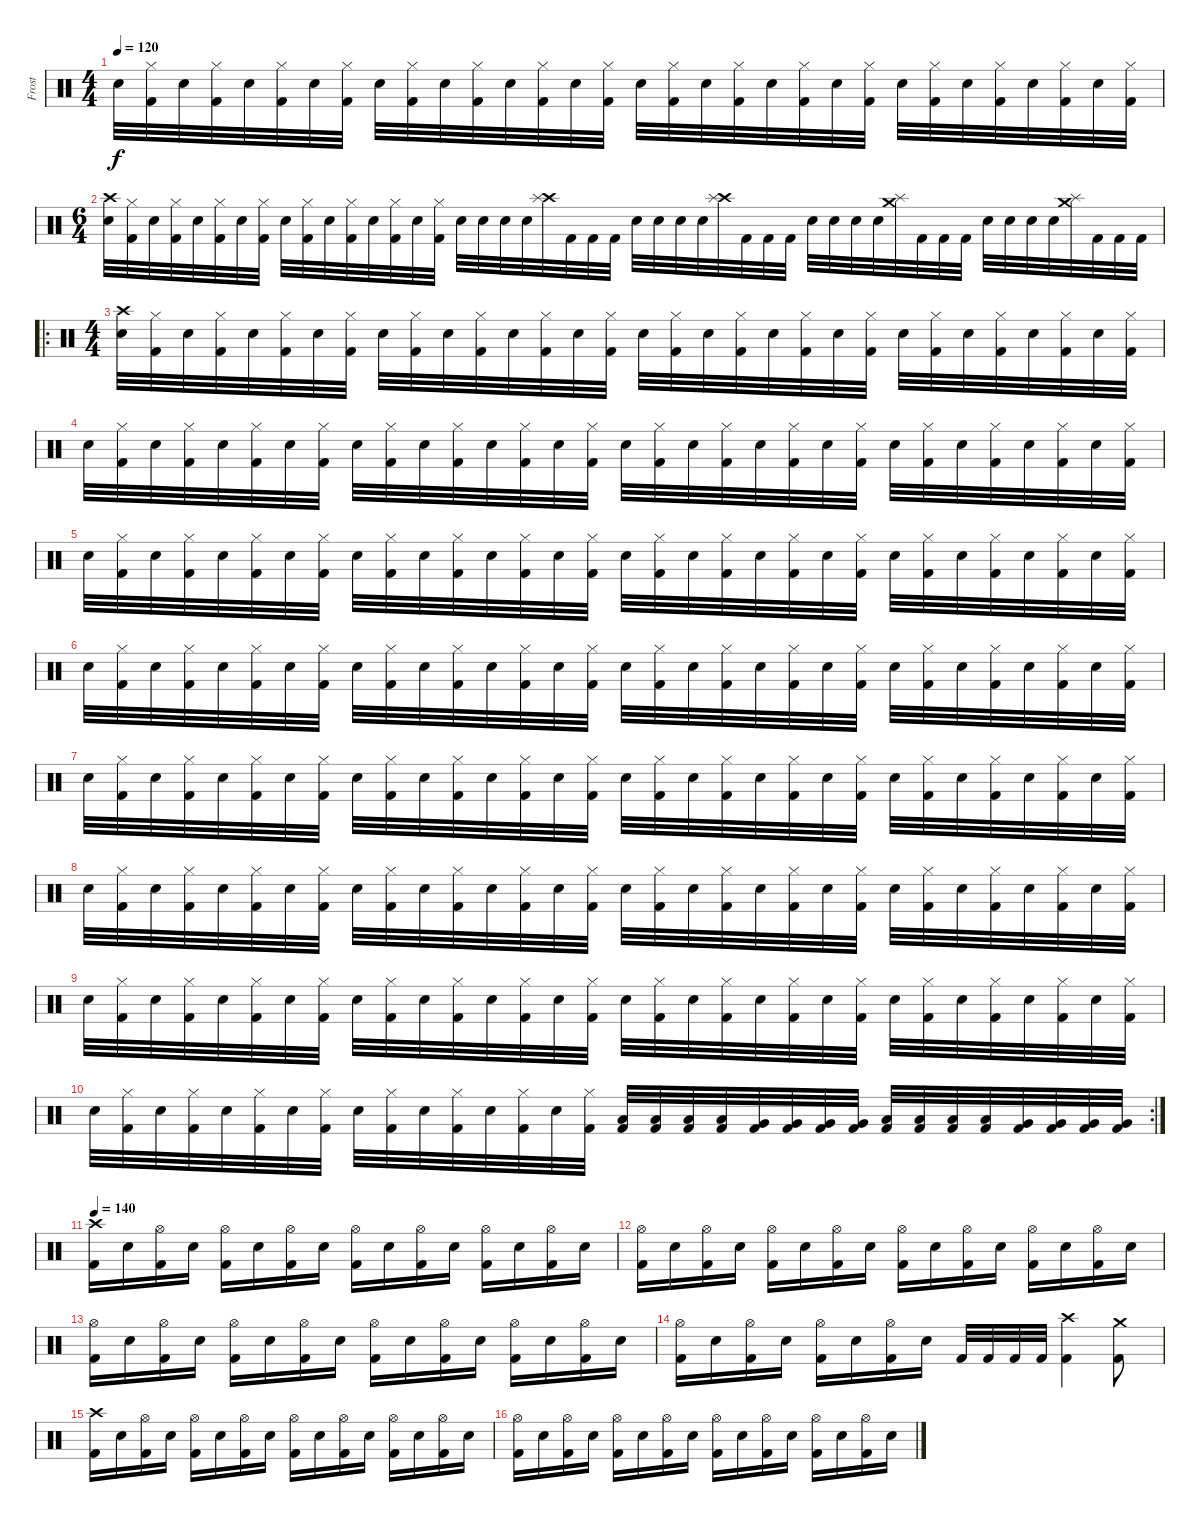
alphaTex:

\track ("Frost" "Frost") {instrument percussion}
\staff {score}
\articulation defaults
\ts (4 4)
\tempo 120
\clef neutral
\ks c "Snare (hit) 2".32{dy f}
("Hi-Hat (closed)" "Kick (hit) 2").32 "Snare (hit) 2".32 ("Hi-Hat (closed)" "Kick (hit) 2").32 "Snare (hit) 2".32 ("Hi-Hat (closed)" "Kick (hit) 2").32 "Snare (hit) 2".32 ("Hi-Hat (closed)" "Kick (hit) 2").32 "Snare (hit) 2".32 ("Hi-Hat (closed)" "Kick (hit) 2").32 "Snare (hit) 2".32 ("Hi-Hat (closed)" "Kick (hit) 2").32 "Snare (hit) 2".32 ("Hi-Hat (closed)" "Kick (hit) 2").32 "Snare (hit) 2".32 ("Hi-Hat (closed)" "Kick (hit) 2").32 "Snare (hit) 2".32 ("Hi-Hat (closed)" "Kick (hit) 2").32 "Snare (hit) 2".32 ("Hi-Hat (closed)" "Kick (hit) 2").32 "Snare (hit) 2".32 ("Hi-Hat (closed)" "Kick (hit) 2").32 "Snare (hit) 2".32 ("Hi-Hat (closed)" "Kick (hit) 2").32 "Snare (hit) 2".32 ("Hi-Hat (closed)" "Kick (hit) 2").32 "Snare (hit) 2".32 ("Hi-Hat (closed)" "Kick (hit) 2").32 "Snare (hit) 2".32 ("Hi-Hat (closed)" "Kick (hit) 2").32 "Snare (hit) 2".32 ("Hi-Hat (closed)" "Kick (hit) 2").32 |
\ts (6 4)
("Crash high (hit)" "Snare (hit) 2").32 ("Hi-Hat (closed)" "Kick (hit) 2").32 "Snare (hit) 2".32 ("Hi-Hat (closed)" "Kick (hit) 2").32 "Snare (hit) 2".32 ("Hi-Hat (closed)" "Kick (hit) 2").32 "Snare (hit) 2".32 ("Hi-Hat (closed)" "Kick (hit) 2").32 "Snare (hit) 2".32 ("Hi-Hat (closed)" "Kick (hit) 2").32 "Snare (hit) 2".32 ("Hi-Hat (closed)" "Kick (hit) 2").32 "Snare (hit) 2".32 ("Hi-Hat (closed)" "Kick (hit) 2").32 "Snare (hit) 2".32 ("Hi-Hat (closed)" "Kick (hit) 2").32 "Snare (hit) 2".32 "Snare (hit) 2".32 "Snare (hit) 2".32 "Snare (hit) 2".32 ("Crash high (hit)" "Splash (hit)").32 "Kick (hit) 2".32 "Kick (hit) 2".32 "Kick (hit) 2".32 "Snare (hit) 2".32 "Snare (hit) 2".32 "Snare (hit) 2".32 "Snare (hit) 2".32 ("Crash high (hit)" "Splash (hit)").32 "Kick (hit) 2".32 "Kick (hit) 2".32 "Kick (hit) 2".32 "Snare (hit) 2".32 "Snare (hit) 2".32 "Snare (hit) 2".32 "Snare (hit) 2".32 ("Splash (hit)" "Crash medium (hit)").32 "Kick (hit) 2".32 "Kick (hit) 2".32 "Kick (hit) 2".32 "Snare (hit) 2".32 "Snare (hit) 2".32 "Snare (hit) 2".32 "Snare (hit) 2".32 ("Splash (hit)" "Crash medium (hit)").32 "Kick (hit) 2".32 "Kick (hit) 2".32 "Kick (hit) 2".32 |
\ro
\ts (4 4)
("Crash high (hit)" "Snare (hit) 2").32 ("Hi-Hat (closed)" "Kick (hit) 2").32 "Snare (hit) 2".32 ("Hi-Hat (closed)" "Kick (hit) 2").32 "Snare (hit) 2".32 ("Hi-Hat (closed)" "Kick (hit) 2").32 "Snare (hit) 2".32 ("Hi-Hat (closed)" "Kick (hit) 2").32 "Snare (hit) 2".32 ("Hi-Hat (closed)" "Kick (hit) 2").32 "Snare (hit) 2".32 ("Hi-Hat (closed)" "Kick (hit) 2").32 "Snare (hit) 2".32 ("Hi-Hat (closed)" "Kick (hit) 2").32 "Snare (hit) 2".32 ("Hi-Hat (closed)" "Kick (hit) 2").32 "Snare (hit) 2".32 ("Hi-Hat (closed)" "Kick (hit) 2").32 "Snare (hit) 2".32 ("Hi-Hat (closed)" "Kick (hit) 2").32 "Snare (hit) 2".32 ("Hi-Hat (closed)" "Kick (hit) 2").32 "Snare (hit) 2".32 ("Hi-Hat (closed)" "Kick (hit) 2").32 "Snare (hit) 2".32 ("Hi-Hat (closed)" "Kick (hit) 2").32 "Snare (hit) 2".32 ("Hi-Hat (closed)" "Kick (hit) 2").32 "Snare (hit) 2".32 ("Hi-Hat (closed)" "Kick (hit) 2").32 "Snare (hit) 2".32 ("Hi-Hat (closed)" "Kick (hit) 2").32 |
"Snare (hit) 2".32 ("Hi-Hat (closed)" "Kick (hit) 2").32 "Snare (hit) 2".32 ("Hi-Hat (closed)" "Kick (hit) 2").32 "Snare (hit) 2".32 ("Hi-Hat (closed)" "Kick (hit) 2").32 "Snare (hit) 2".32 ("Hi-Hat (closed)" "Kick (hit) 2").32 "Snare (hit) 2".32 ("Hi-Hat (closed)" "Kick (hit) 2").32 "Snare (hit) 2".32 ("Hi-Hat (closed)" "Kick (hit) 2").32 "Snare (hit) 2".32 ("Hi-Hat (closed)" "Kick (hit) 2").32 "Snare (hit) 2".32 ("Hi-Hat (closed)" "Kick (hit) 2").32 "Snare (hit) 2".32 ("Hi-Hat (closed)" "Kick (hit) 2").32 "Snare (hit) 2".32 ("Hi-Hat (closed)" "Kick (hit) 2").32 "Snare (hit) 2".32 ("Hi-Hat (closed)" "Kick (hit) 2").32 "Snare (hit) 2".32 ("Hi-Hat (closed)" "Kick (hit) 2").32 "Snare (hit) 2".32 ("Hi-Hat (closed)" "Kick (hit) 2").32 "Snare (hit) 2".32 ("Hi-Hat (closed)" "Kick (hit) 2").32 "Snare (hit) 2".32 ("Hi-Hat (closed)" "Kick (hit) 2").32 "Snare (hit) 2".32 ("Hi-Hat (closed)" "Kick (hit) 2").32 |
"Snare (hit) 2".32 ("Hi-Hat (closed)" "Kick (hit) 2").32 "Snare (hit) 2".32 ("Hi-Hat (closed)" "Kick (hit) 2").32 "Snare (hit) 2".32 ("Hi-Hat (closed)" "Kick (hit) 2").32 "Snare (hit) 2".32 ("Hi-Hat (closed)" "Kick (hit) 2").32 "Snare (hit) 2".32 ("Hi-Hat (closed)" "Kick (hit) 2").32 "Snare (hit) 2".32 ("Hi-Hat (closed)" "Kick (hit) 2").32 "Snare (hit) 2".32 ("Hi-Hat (closed)" "Kick (hit) 2").32 "Snare (hit) 2".32 ("Hi-Hat (closed)" "Kick (hit) 2").32 "Snare (hit) 2".32 ("Hi-Hat (closed)" "Kick (hit) 2").32 "Snare (hit) 2".32 ("Hi-Hat (closed)" "Kick (hit) 2").32 "Snare (hit) 2".32 ("Hi-Hat (closed)" "Kick (hit) 2").32 "Snare (hit) 2".32 ("Hi-Hat (closed)" "Kick (hit) 2").32 "Snare (hit) 2".32 ("Hi-Hat (closed)" "Kick (hit) 2").32 "Snare (hit) 2".32 ("Hi-Hat (closed)" "Kick (hit) 2").32 "Snare (hit) 2".32 ("Hi-Hat (closed)" "Kick (hit) 2").32 "Snare (hit) 2".32 ("Hi-Hat (closed)" "Kick (hit) 2").32 |
"Snare (hit) 2".32 ("Hi-Hat (closed)" "Kick (hit) 2").32 "Snare (hit) 2".32 ("Hi-Hat (closed)" "Kick (hit) 2").32 "Snare (hit) 2".32 ("Hi-Hat (closed)" "Kick (hit) 2").32 "Snare (hit) 2".32 ("Hi-Hat (closed)" "Kick (hit) 2").32 "Snare (hit) 2".32 ("Hi-Hat (closed)" "Kick (hit) 2").32 "Snare (hit) 2".32 ("Hi-Hat (closed)" "Kick (hit) 2").32 "Snare (hit) 2".32 ("Hi-Hat (closed)" "Kick (hit) 2").32 "Snare (hit) 2".32 ("Hi-Hat (closed)" "Kick (hit) 2").32 "Snare (hit) 2".32 ("Hi-Hat (closed)" "Kick (hit) 2").32 "Snare (hit) 2".32 ("Hi-Hat (closed)" "Kick (hit) 2").32 "Snare (hit) 2".32 ("Hi-Hat (closed)" "Kick (hit) 2").32 "Snare (hit) 2".32 ("Hi-Hat (closed)" "Kick (hit) 2").32 "Snare (hit) 2".32 ("Hi-Hat (closed)" "Kick (hit) 2").32 "Snare (hit) 2".32 ("Hi-Hat (closed)" "Kick (hit) 2").32 "Snare (hit) 2".32 ("Hi-Hat (closed)" "Kick (hit) 2").32 "Snare (hit) 2".32 ("Hi-Hat (closed)" "Kick (hit) 2").32 |
"Snare (hit) 2".32 ("Hi-Hat (closed)" "Kick (hit) 2").32 "Snare (hit) 2".32 ("Hi-Hat (closed)" "Kick (hit) 2").32 "Snare (hit) 2".32 ("Hi-Hat (closed)" "Kick (hit) 2").32 "Snare (hit) 2".32 ("Hi-Hat (closed)" "Kick (hit) 2").32 "Snare (hit) 2".32 ("Hi-Hat (closed)" "Kick (hit) 2").32 "Snare (hit) 2".32 ("Hi-Hat (closed)" "Kick (hit) 2").32 "Snare (hit) 2".32 ("Hi-Hat (closed)" "Kick (hit) 2").32 "Snare (hit) 2".32 ("Hi-Hat (closed)" "Kick (hit) 2").32 "Snare (hit) 2".32 ("Hi-Hat (closed)" "Kick (hit) 2").32 "Snare (hit) 2".32 ("Hi-Hat (closed)" "Kick (hit) 2").32 "Snare (hit) 2".32 ("Hi-Hat (closed)" "Kick (hit) 2").32 "Snare (hit) 2".32 ("Hi-Hat (closed)" "Kick (hit) 2").32 "Snare (hit) 2".32 ("Hi-Hat (closed)" "Kick (hit) 2").32 "Snare (hit) 2".32 ("Hi-Hat (closed)" "Kick (hit) 2").32 "Snare (hit) 2".32 ("Hi-Hat (closed)" "Kick (hit) 2").32 "Snare (hit) 2".32 ("Hi-Hat (closed)" "Kick (hit) 2").32 |
"Snare (hit) 2".32 ("Hi-Hat (closed)" "Kick (hit) 2").32 "Snare (hit) 2".32 ("Hi-Hat (closed)" "Kick (hit) 2").32 "Snare (hit) 2".32 ("Hi-Hat (closed)" "Kick (hit) 2").32 "Snare (hit) 2".32 ("Hi-Hat (closed)" "Kick (hit) 2").32 "Snare (hit) 2".32 ("Hi-Hat (closed)" "Kick (hit) 2").32 "Snare (hit) 2".32 ("Hi-Hat (closed)" "Kick (hit) 2").32 "Snare (hit) 2".32 ("Hi-Hat (closed)" "Kick (hit) 2").32 "Snare (hit) 2".32 ("Hi-Hat (closed)" "Kick (hit) 2").32 "Snare (hit) 2".32 ("Hi-Hat (closed)" "Kick (hit) 2").32 "Snare (hit) 2".32 ("Hi-Hat (closed)" "Kick (hit) 2").32 "Snare (hit) 2".32 ("Hi-Hat (closed)" "Kick (hit) 2").32 "Snare (hit) 2".32 ("Hi-Hat (closed)" "Kick (hit) 2").32 "Snare (hit) 2".32 ("Hi-Hat (closed)" "Kick (hit) 2").32 "Snare (hit) 2".32 ("Hi-Hat (closed)" "Kick (hit) 2").32 "Snare (hit) 2".32 ("Hi-Hat (closed)" "Kick (hit) 2").32 "Snare (hit) 2".32 ("Hi-Hat (closed)" "Kick (hit) 2").32 |
"Snare (hit) 2".32 ("Hi-Hat (closed)" "Kick (hit) 2").32 "Snare (hit) 2".32 ("Hi-Hat (closed)" "Kick (hit) 2").32 "Snare (hit) 2".32 ("Hi-Hat (closed)" "Kick (hit) 2").32 "Snare (hit) 2".32 ("Hi-Hat (closed)" "Kick (hit) 2").32 "Snare (hit) 2".32 ("Hi-Hat (closed)" "Kick (hit) 2").32 "Snare (hit) 2".32 ("Hi-Hat (closed)" "Kick (hit) 2").32 "Snare (hit) 2".32 ("Hi-Hat (closed)" "Kick (hit) 2").32 "Snare (hit) 2".32 ("Hi-Hat (closed)" "Kick (hit) 2").32 "Snare (hit) 2".32 ("Hi-Hat (closed)" "Kick (hit) 2").32 "Snare (hit) 2".32 ("Hi-Hat (closed)" "Kick (hit) 2").32 "Snare (hit) 2".32 ("Hi-Hat (closed)" "Kick (hit) 2").32 "Snare (hit) 2".32 ("Hi-Hat (closed)" "Kick (hit) 2").32 "Snare (hit) 2".32 ("Hi-Hat (closed)" "Kick (hit) 2").32 "Snare (hit) 2".32 ("Hi-Hat (closed)" "Kick (hit) 2").32 "Snare (hit) 2".32 ("Hi-Hat (closed)" "Kick (hit) 2").32 "Snare (hit) 2".32 ("Hi-Hat (closed)" "Kick (hit) 2").32 |
\rc 2 "Snare (hit) 2".32
("Hi-Hat (closed)" "Kick (hit) 2").32 "Snare (hit) 2".32 ("Hi-Hat (closed)" "Kick (hit) 2").32 "Snare (hit) 2".32 ("Hi-Hat (closed)" "Kick (hit) 2").32 "Snare (hit) 2".32 ("Hi-Hat (closed)" "Kick (hit) 2").32 "Snare (hit) 2".32 ("Hi-Hat (closed)" "Kick (hit) 2").32 "Snare (hit) 2".32 ("Hi-Hat (closed)" "Kick (hit) 2").32 "Snare (hit) 2".32 ("Hi-Hat (closed)" "Kick (hit) 2").32 "Snare (hit) 2".32 ("Hi-Hat (closed)" "Kick (hit) 2").32 ("Low Tom (hit)" "Kick (hit) 2").32 ("Low Tom (hit)" "Kick (hit) 2").32 ("Low Tom (hit)" "Kick (hit) 2").32 ("Low Tom (hit)" "Kick (hit) 2").32 ("Very Low Tom (hit)" "Kick (hit) 2").32 ("Very Low Tom (hit)" "Kick (hit) 2").32 ("Very Low Tom (hit)" "Kick (hit) 2").32 ("Very Low Tom (hit)" "Kick (hit) 2").32 ("Low Tom (hit)" "Kick (hit) 2").32 ("Low Tom (hit)" "Kick (hit) 2").32 ("Low Tom (hit)" "Kick (hit) 2").32 ("Low Tom (hit)" "Kick (hit) 2").32 ("Very Low Tom (hit)" "Kick (hit) 2").32 ("Very Low Tom (hit)" "Kick (hit) 2").32 ("Very Low Tom (hit)" "Kick (hit) 2").32 ("Very Low Tom (hit)" "Kick (hit) 2").32 |
\tempo 140
("Crash high (hit)" "Kick (hit) 2").16 "Snare (hit) 2".16 ("Hi-Hat (open)" "Kick (hit) 2").16 "Snare (hit) 2".16 ("Hi-Hat (open)" "Kick (hit) 2").16 "Snare (hit) 2".16 ("Hi-Hat (open)" "Kick (hit) 2").16 "Snare (hit) 2".16 ("Hi-Hat (open)" "Kick (hit) 2").16 "Snare (hit) 2".16 ("Hi-Hat (open)" "Kick (hit) 2").16 "Snare (hit) 2".16 ("Hi-Hat (open)" "Kick (hit) 2").16 "Snare (hit) 2".16 ("Hi-Hat (open)" "Kick (hit) 2").16 "Snare (hit) 2".16 |
("Hi-Hat (open)" "Kick (hit) 2").16 "Snare (hit) 2".16 ("Hi-Hat (open)" "Kick (hit) 2").16 "Snare (hit) 2".16 ("Hi-Hat (open)" "Kick (hit) 2").16 "Snare (hit) 2".16 ("Hi-Hat (open)" "Kick (hit) 2").16 "Snare (hit) 2".16 ("Hi-Hat (open)" "Kick (hit) 2").16 "Snare (hit) 2".16 ("Hi-Hat (open)" "Kick (hit) 2").16 "Snare (hit) 2".16 ("Hi-Hat (open)" "Kick (hit) 2").16 "Snare (hit) 2".16 ("Hi-Hat (open)" "Kick (hit) 2").16 "Snare (hit) 2".16 |
("Hi-Hat (open)" "Kick (hit) 2").16 "Snare (hit) 2".16 ("Hi-Hat (open)" "Kick (hit) 2").16 "Snare (hit) 2".16 ("Hi-Hat (open)" "Kick (hit) 2").16 "Snare (hit) 2".16 ("Hi-Hat (open)" "Kick (hit) 2").16 "Snare (hit) 2".16 ("Hi-Hat (open)" "Kick (hit) 2").16 "Snare (hit) 2".16 ("Hi-Hat (open)" "Kick (hit) 2").16 "Snare (hit) 2".16 ("Hi-Hat (open)" "Kick (hit) 2").16 "Snare (hit) 2".16 ("Hi-Hat (open)" "Kick (hit) 2").16 "Snare (hit) 2".16 |
("Hi-Hat (open)" "Kick (hit) 2").16 "Snare (hit) 2".16 ("Hi-Hat (open)" "Kick (hit) 2").16 "Snare (hit) 2".16 ("Hi-Hat (open)" "Kick (hit) 2").16 "Snare (hit) 2".16 ("Hi-Hat (open)" "Kick (hit) 2").16 "Snare (hit) 2".16 "Kick (hit) 2".32 "Kick (hit) 2".32 "Kick (hit) 2".32 "Kick (hit) 2".32 ("Crash high (hit)" "Kick (hit) 2").4 ("Crash medium (hit)" "Kick (hit) 2").8 |
("Crash high (hit)" "Kick (hit) 2").16 "Snare (hit) 2".16 ("Hi-Hat (open)" "Kick (hit) 2").16 "Snare (hit) 2".16 ("Hi-Hat (open)" "Kick (hit) 2").16 "Snare (hit) 2".16 ("Hi-Hat (open)" "Kick (hit) 2").16 "Snare (hit) 2".16 ("Hi-Hat (open)" "Kick (hit) 2").16 "Snare (hit) 2".16 ("Hi-Hat (open)" "Kick (hit) 2").16 "Snare (hit) 2".16 ("Hi-Hat (open)" "Kick (hit) 2").16 "Snare (hit) 2".16 ("Hi-Hat (open)" "Kick (hit) 2").16 "Snare (hit) 2".16 |
("Hi-Hat (open)" "Kick (hit) 2").16 "Snare (hit) 2".16 ("Hi-Hat (open)" "Kick (hit) 2").16 "Snare (hit) 2".16 ("Hi-Hat (open)" "Kick (hit) 2").16 "Snare (hit) 2".16 ("Hi-Hat (open)" "Kick (hit) 2").16 "Snare (hit) 2".16 ("Hi-Hat (open)" "Kick (hit) 2").16 "Snare (hit) 2".16 ("Hi-Hat (open)" "Kick (hit) 2").16 "Snare (hit) 2".16 ("Hi-Hat (open)" "Kick (hit) 2").16 "Snare (hit) 2".16 ("Hi-Hat (open)" "Kick (hit) 2").16 "Snare (hit) 2".16
